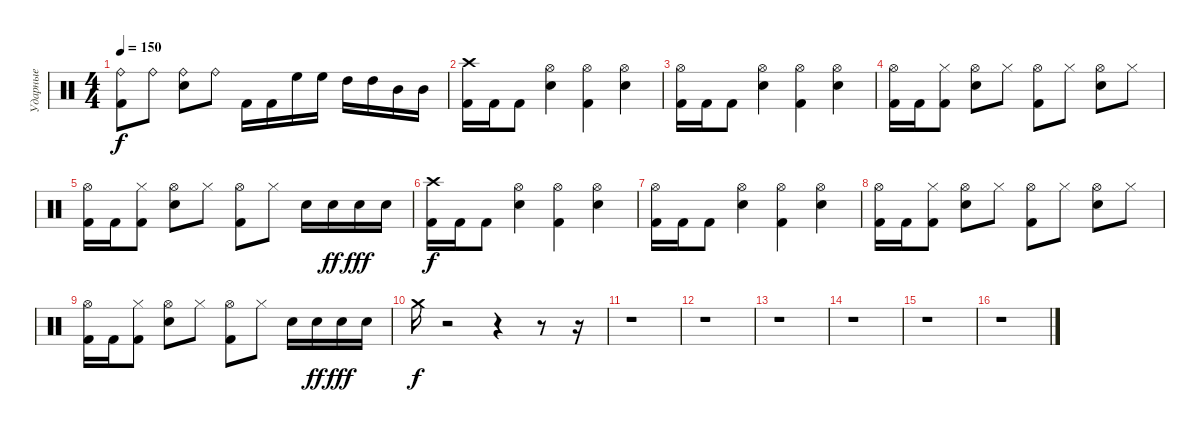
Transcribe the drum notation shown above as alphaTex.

\track ("Ударные" "Ударные") {instrument percussion}
\staff {score}
\articulation defaults
\ts (4 4)
\tempo 150
\clef neutral
\ks c
("Ride (bell)" "Kick (hit) 2").8{dy f} "Ride (bell)".8 ("Ride (bell)" "Electric Snare (hit)").8 "Ride (bell)".8 "Kick (hit) 2".16 "Kick (hit) 2".16 "High Floor Tom (hit)".16 "High Floor Tom (hit)".16 "High Tom (hit)".16 "High Tom (hit)".16 "Mid Tom (hit)".16 "Mid Tom (hit)".16 |
("Crash high (hit)" "Kick (hit) 2").16 "Kick (hit) 2".16 "Kick (hit) 2".8 ("Hi-Hat (open)" "Electric Snare (hit)").4 ("Hi-Hat (open)" "Kick (hit) 2").4 ("Hi-Hat (open)" "Electric Snare (hit)").4 |
("Hi-Hat (open)" "Kick (hit) 2").16 "Kick (hit) 2".16 "Kick (hit) 2".8 ("Hi-Hat (open)" "Electric Snare (hit)").4 ("Hi-Hat (open)" "Kick (hit) 2").4 ("Hi-Hat (open)" "Electric Snare (hit)").4 |
("Hi-Hat (open)" "Kick (hit) 2").16 "Kick (hit) 2".16 ("Hi-Hat (closed)" "Kick (hit) 2").8 ("Hi-Hat (open)" "Electric Snare (hit)").8 "Hi-Hat (closed)".8 ("Hi-Hat (open)" "Kick (hit) 2").8 "Hi-Hat (closed)".8 ("Hi-Hat (open)" "Electric Snare (hit)").8 "Hi-Hat (closed)".8 |
("Hi-Hat (open)" "Kick (hit) 2").16 "Kick (hit) 2".16 ("Hi-Hat (closed)" "Kick (hit) 2").8 ("Hi-Hat (open)" "Electric Snare (hit)").8 "Hi-Hat (closed)".8 ("Hi-Hat (open)" "Kick (hit) 2").8 "Hi-Hat (closed)".8 "Electric Snare (hit)".16 "Electric Snare (hit)".16{dy ff} "Electric Snare (hit)".16{dy fff} "Electric Snare (hit)".16 |
("Crash high (hit)" "Kick (hit) 2").16{dy f} "Kick (hit) 2".16 "Kick (hit) 2".8 ("Hi-Hat (open)" "Electric Snare (hit)").4 ("Hi-Hat (open)" "Kick (hit) 2").4 ("Hi-Hat (open)" "Electric Snare (hit)").4 |
("Hi-Hat (open)" "Kick (hit) 2").16 "Kick (hit) 2".16 "Kick (hit) 2".8 ("Hi-Hat (open)" "Electric Snare (hit)").4 ("Hi-Hat (open)" "Kick (hit) 2").4 ("Hi-Hat (open)" "Electric Snare (hit)").4 |
("Hi-Hat (open)" "Kick (hit) 2").16 "Kick (hit) 2".16 ("Hi-Hat (closed)" "Kick (hit) 2").8 ("Hi-Hat (open)" "Electric Snare (hit)").8 "Hi-Hat (closed)".8 ("Hi-Hat (open)" "Kick (hit) 2").8 "Hi-Hat (closed)".8 ("Hi-Hat (open)" "Electric Snare (hit)").8 "Hi-Hat (closed)".8 |
("Hi-Hat (open)" "Kick (hit) 2").16 "Kick (hit) 2".16 ("Hi-Hat (closed)" "Kick (hit) 2").8 ("Hi-Hat (open)" "Electric Snare (hit)").8 "Hi-Hat (closed)".8 ("Hi-Hat (open)" "Kick (hit) 2").8 "Hi-Hat (closed)".8 "Electric Snare (hit)".16 "Electric Snare (hit)".16{dy ff} "Electric Snare (hit)".16{dy fff} "Electric Snare (hit)".16 |
"Crash medium (hit)".16{dy f} r.2 r.4 r.8 r.16 |
r.1 |
r.1 |
r.1 |
r.1 |
r.1 |
r.1
